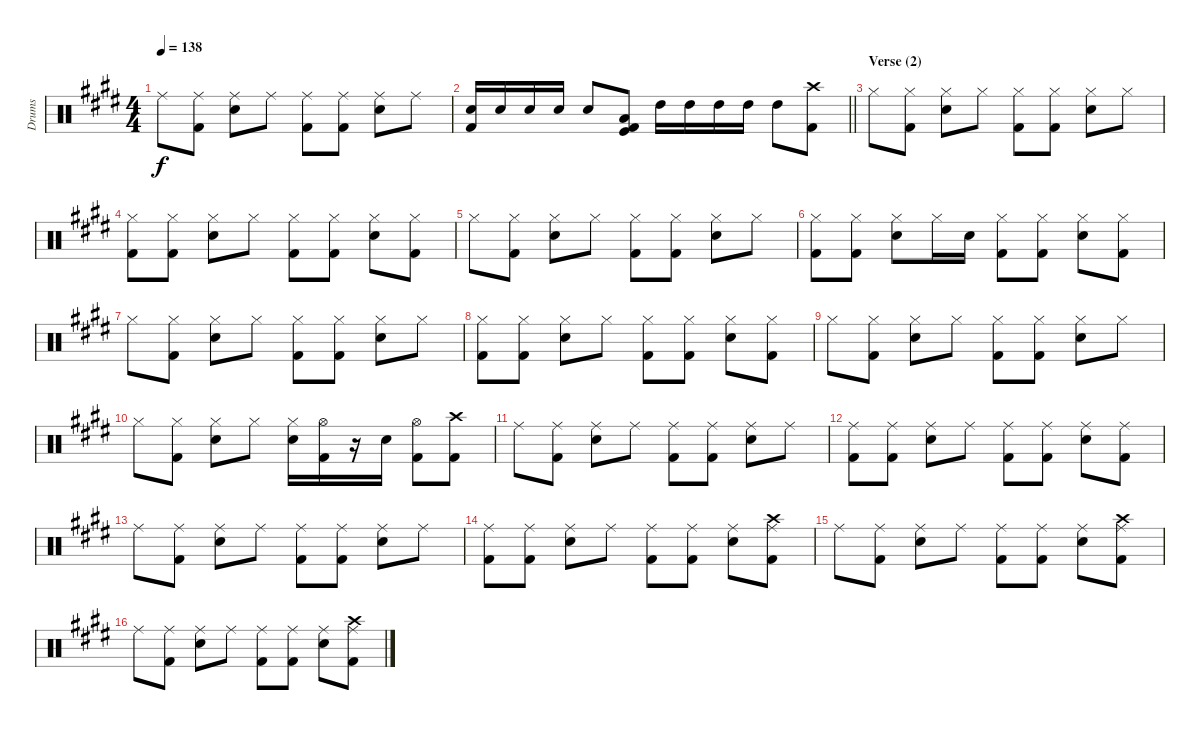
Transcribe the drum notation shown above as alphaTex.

\track ("Drums" "Drums") {instrument percussion}
\staff {score}
\articulation defaults
\ts (4 4)
\tempo 138
\clef neutral
\ks e "Ride (middle)".8{dy f}
("Kick (hit) 2" "Ride (middle)").8 ("Snare (hit) 2" "Ride (middle)").8 "Ride (middle)".8 ("Kick (hit) 2" "Ride (middle)").8 ("Kick (hit) 2" "Ride (middle)").8 ("Snare (hit) 2" "Ride (middle)").8 "Ride (middle)".8 |
\barLineRight lightlight
("Kick (hit) 2" "Snare (hit) 2").16 "Snare (hit) 2".16 "Snare (hit) 2".16 "Snare (hit) 2".16 "Snare (hit) 2".8 ("Kick (hit)" "Kick (hit) 2" "Low Floor Tom (hit)").8 "High Tom (hit)".16 "High Tom (hit)".16 "High Tom (hit)".16 "High Tom (hit)".16 "High Tom (hit)".8 ("Crash high (hit)" "Kick (hit) 2").8 |
\section ("" "Verse (2)")
"Hi-Hat (closed)".8 ("Kick (hit) 2" "Hi-Hat (closed)").8 ("Snare (hit) 2" "Hi-Hat (closed)").8 "Hi-Hat (closed)".8 ("Kick (hit) 2" "Hi-Hat (closed)").8 ("Kick (hit) 2" "Hi-Hat (closed)").8 ("Snare (hit) 2" "Hi-Hat (closed)").8 "Hi-Hat (closed)".8 |
("Kick (hit) 2" "Hi-Hat (closed)").8 ("Kick (hit) 2" "Hi-Hat (closed)").8 ("Snare (hit) 2" "Hi-Hat (closed)").8 "Hi-Hat (closed)".8 ("Kick (hit) 2" "Hi-Hat (closed)").8 ("Kick (hit) 2" "Hi-Hat (closed)").8 ("Snare (hit) 2" "Hi-Hat (closed)").8 ("Kick (hit) 2" "Hi-Hat (closed)").8 |
"Hi-Hat (closed)".8 ("Kick (hit) 2" "Hi-Hat (closed)").8 ("Snare (hit) 2" "Hi-Hat (closed)").8 "Hi-Hat (closed)".8 ("Kick (hit) 2" "Hi-Hat (closed)").8 ("Kick (hit) 2" "Hi-Hat (closed)").8 ("Snare (hit) 2" "Hi-Hat (closed)").8 "Hi-Hat (closed)".8 |
("Kick (hit) 2" "Hi-Hat (closed)").8 ("Kick (hit) 2" "Hi-Hat (closed)").8 ("Snare (hit) 2" "Hi-Hat (closed)").8 "Hi-Hat (closed)".16 "Snare (hit) 2".16 ("Kick (hit) 2" "Hi-Hat (closed)").8 ("Kick (hit) 2" "Hi-Hat (closed)").8 ("Snare (hit) 2" "Hi-Hat (closed)").8 ("Kick (hit) 2" "Hi-Hat (closed)").8 |
"Hi-Hat (closed)".8 ("Kick (hit) 2" "Hi-Hat (closed)").8 ("Snare (hit) 2" "Hi-Hat (closed)").8 "Hi-Hat (closed)".8 ("Kick (hit) 2" "Hi-Hat (closed)").8 ("Kick (hit) 2" "Hi-Hat (closed)").8 ("Snare (hit) 2" "Hi-Hat (closed)").8 "Hi-Hat (closed)".8 |
("Kick (hit) 2" "Hi-Hat (closed)").8 ("Kick (hit) 2" "Hi-Hat (closed)").8 ("Snare (hit) 2" "Hi-Hat (closed)").8 "Hi-Hat (closed)".8 ("Kick (hit) 2" "Hi-Hat (closed)").8 ("Kick (hit) 2" "Hi-Hat (closed)").8 ("Snare (hit) 2" "Hi-Hat (closed)").8 ("Kick (hit) 2" "Hi-Hat (closed)").8 |
"Hi-Hat (closed)".8 ("Kick (hit) 2" "Hi-Hat (closed)").8 ("Snare (hit) 2" "Hi-Hat (closed)").8 "Hi-Hat (closed)".8 ("Kick (hit) 2" "Hi-Hat (closed)").8 ("Kick (hit) 2" "Hi-Hat (closed)").8 ("Snare (hit) 2" "Hi-Hat (closed)").8 "Hi-Hat (closed)".8 |
"Hi-Hat (closed)".8 ("Kick (hit) 2" "Hi-Hat (closed)").8 ("Snare (hit) 2" "Hi-Hat (closed)").8 "Hi-Hat (closed)".8 ("Snare (hit) 2" "Hi-Hat (closed)").16 ("Hi-Hat (open)" "Kick (hit) 2").16 r.16 "Snare (hit) 2".16 ("Hi-Hat (open)" "Kick (hit) 2").8 ("Crash high (hit)" "Kick (hit) 2").8 |
"Ride (middle)".8 ("Kick (hit) 2" "Ride (middle)").8 ("Snare (hit) 2" "Ride (middle)").8 "Ride (middle)".8 ("Kick (hit) 2" "Ride (middle)").8 ("Kick (hit) 2" "Ride (middle)").8 ("Snare (hit) 2" "Ride (middle)").8 "Ride (middle)".8 |
("Kick (hit) 2" "Ride (middle)").8 ("Kick (hit) 2" "Ride (middle)").8 ("Snare (hit) 2" "Ride (middle)").8 "Ride (middle)".8 ("Kick (hit) 2" "Ride (middle)").8 ("Kick (hit) 2" "Ride (middle)").8 ("Snare (hit) 2" "Ride (middle)").8 ("Kick (hit) 2" "Ride (middle)").8 |
"Ride (middle)".8 ("Kick (hit) 2" "Ride (middle)").8 ("Snare (hit) 2" "Ride (middle)").8 "Ride (middle)".8 ("Kick (hit) 2" "Ride (middle)").8 ("Kick (hit) 2" "Ride (middle)").8 ("Snare (hit) 2" "Ride (middle)").8 "Ride (middle)".8 |
("Kick (hit) 2" "Ride (middle)").8 ("Kick (hit) 2" "Ride (middle)").8 ("Snare (hit) 2" "Ride (middle)").8 "Ride (middle)".8 ("Kick (hit) 2" "Ride (middle)").8 ("Kick (hit) 2" "Ride (middle)").8 ("Snare (hit) 2" "Ride (middle)").8 ("Crash high (hit)" "Kick (hit) 2" "Ride (middle)").8 |
"Ride (middle)".8 ("Kick (hit) 2" "Ride (middle)").8 ("Snare (hit) 2" "Ride (middle)").8 "Ride (middle)".8 ("Kick (hit) 2" "Ride (middle)").8 ("Kick (hit) 2" "Ride (middle)").8 ("Snare (hit) 2" "Ride (middle)").8 ("Crash high (hit)" "Kick (hit) 2" "Ride (middle)").8 |
"Ride (middle)".8 ("Kick (hit) 2" "Ride (middle)").8 ("Snare (hit) 2" "Ride (middle)").8 "Ride (middle)".8 ("Kick (hit) 2" "Ride (middle)").8 ("Kick (hit) 2" "Ride (middle)").8 ("Snare (hit) 2" "Ride (middle)").8 ("Crash high (hit)" "Kick (hit) 2" "Ride (middle)").8
